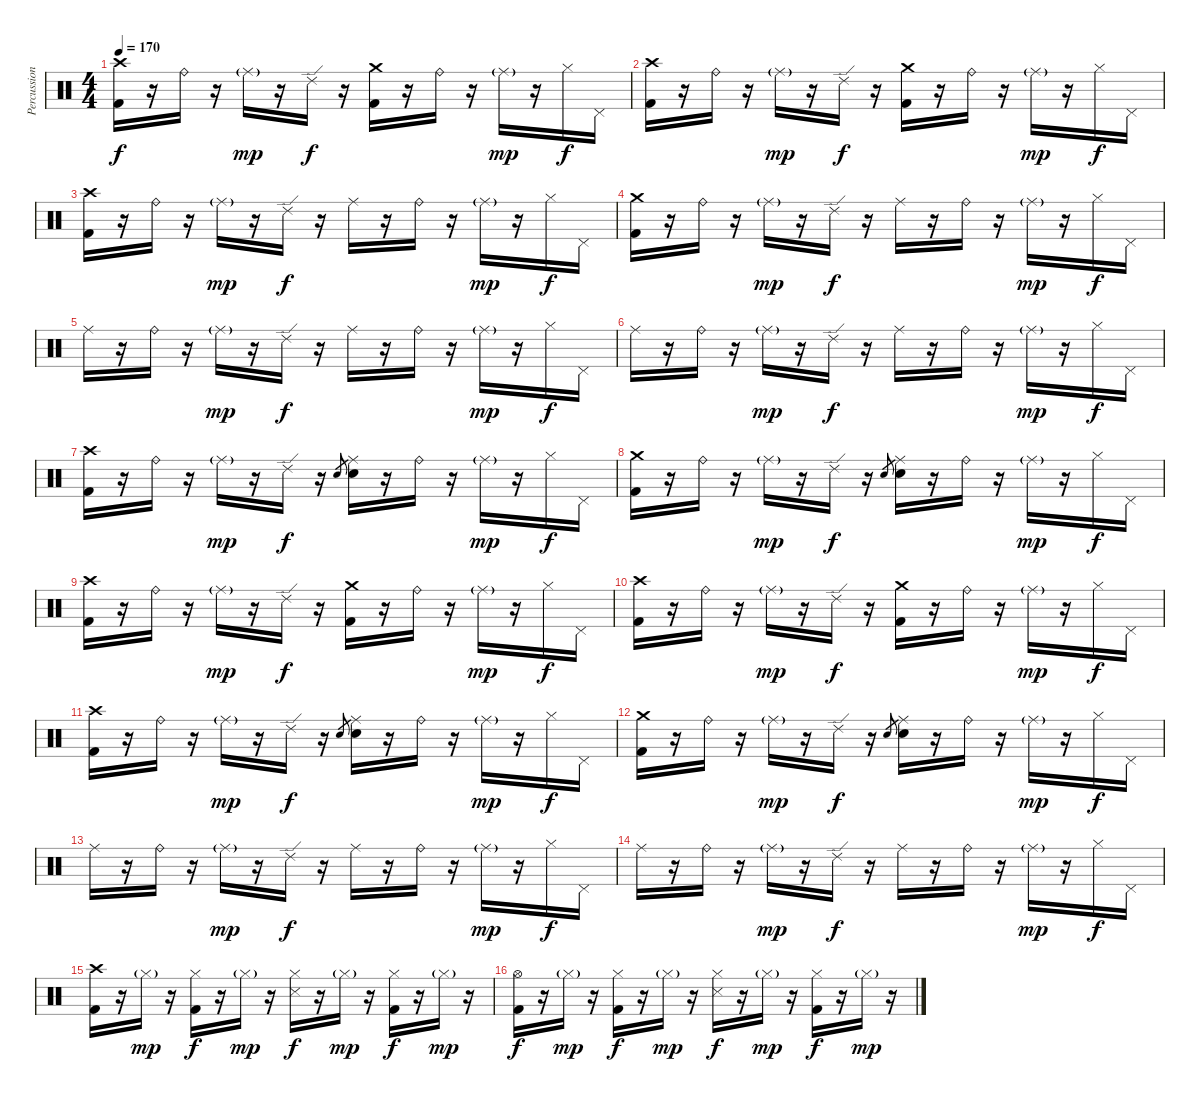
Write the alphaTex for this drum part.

\track ("Percussion" "Percussion") {instrument percussion}
\staff {score}
\articulation defaults
\ts (4 4)
\tempo 170
\clef neutral
\ks c
("Crash high (hit)" "Kick (hit) 2").16{dy f} r.16 "Ride (bell)".16 r.16 "Ride (middle)"{g}.16{dy mp} r.16 "Ride (edge) 2".16{dy f} r.16 ("Crash medium (hit)" "Kick (hit) 2").16 r.16 "Ride (bell)".16 r.16 "Ride (middle)"{g}.16{dy mp} r.16 "Hi-Hat (closed)".16{dy f} "Pedal Hi-Hat (hit)".16 |
("Crash high (hit)" "Kick (hit) 2").16 r.16 "Ride (bell)".16 r.16 "Ride (middle)"{g}.16{dy mp} r.16 "Ride (edge) 2".16{dy f} r.16 ("Crash medium (hit)" "Kick (hit) 2").16 r.16 "Ride (bell)".16 r.16 "Ride (middle)"{g}.16{dy mp} r.16 "Hi-Hat (closed)".16{dy f} "Pedal Hi-Hat (hit)".16 |
("Crash high (hit)" "Kick (hit) 2").16 r.16 "Ride (bell)".16 r.16 "Ride (middle)"{g}.16{dy mp} r.16 "Ride (edge) 2".16{dy f} r.16 "Ride (middle)".16 r.16 "Ride (bell)".16 r.16 "Ride (middle)"{g}.16{dy mp} r.16 "Hi-Hat (closed)".16{dy f} "Pedal Hi-Hat (hit)".16 |
("Crash medium (hit)" "Kick (hit) 2").16 r.16 "Ride (bell)".16 r.16 "Ride (middle)"{g}.16{dy mp} r.16 "Ride (edge) 2".16{dy f} r.16 "Ride (middle)".16 r.16 "Ride (bell)".16 r.16 "Ride (middle)"{g}.16{dy mp} r.16 "Hi-Hat (closed)".16{dy f} "Pedal Hi-Hat (hit)".16 |
"Ride (middle)".16 r.16 "Ride (bell)".16 r.16 "Ride (middle)"{g}.16{dy mp} r.16 "Ride (edge) 2".16{dy f} r.16 "Ride (middle)".16 r.16 "Ride (bell)".16 r.16 "Ride (middle)"{g}.16{dy mp} r.16 "Hi-Hat (closed)".16{dy f} "Pedal Hi-Hat (hit)".16 |
"Ride (middle)".16 r.16 "Ride (bell)".16 r.16 "Ride (middle)"{g}.16{dy mp} r.16 "Ride (edge) 2".16{dy f} r.16 "Ride (middle)".16 r.16 "Ride (bell)".16 r.16 "Ride (middle)"{g}.16{dy mp} r.16 "Hi-Hat (closed)".16{dy f} "Pedal Hi-Hat (hit)".16 |
("Crash high (hit)" "Kick (hit) 2").16 r.16 "Ride (bell)".16 r.16 "Ride (middle)"{g}.16{dy mp} r.16 "Ride (edge) 2".16{dy f} r.16 "Electric Snare (hit)".8{gr} ("Ride (middle)" "Electric Snare (hit)").16 r.16 "Ride (bell)".16 r.16 "Ride (middle)"{g}.16{dy mp} r.16 "Hi-Hat (closed)".16{dy f} "Pedal Hi-Hat (hit)".16 |
("Crash medium (hit)" "Kick (hit) 2").16 r.16 "Ride (bell)".16 r.16 "Ride (middle)"{g}.16{dy mp} r.16 "Ride (edge) 2".16{dy f} r.16 "Electric Snare (hit)".8{gr} ("Ride (middle)" "Electric Snare (hit)").16 r.16 "Ride (bell)".16 r.16 "Ride (middle)"{g}.16{dy mp} r.16 "Hi-Hat (closed)".16{dy f} "Pedal Hi-Hat (hit)".16 |
("Crash high (hit)" "Kick (hit) 2").16 r.16 "Ride (bell)".16 r.16 "Ride (middle)"{g}.16{dy mp} r.16 "Ride (edge) 2".16{dy f} r.16 ("Crash medium (hit)" "Kick (hit) 2").16 r.16 "Ride (bell)".16 r.16 "Ride (middle)"{g}.16{dy mp} r.16 "Hi-Hat (closed)".16{dy f} "Pedal Hi-Hat (hit)".16 |
("Crash high (hit)" "Kick (hit) 2").16 r.16 "Ride (bell)".16 r.16 "Ride (middle)"{g}.16{dy mp} r.16 "Ride (edge) 2".16{dy f} r.16 ("Crash medium (hit)" "Kick (hit) 2").16 r.16 "Ride (bell)".16 r.16 "Ride (middle)"{g}.16{dy mp} r.16 "Hi-Hat (closed)".16{dy f} "Pedal Hi-Hat (hit)".16 |
("Crash high (hit)" "Kick (hit) 2").16 r.16 "Ride (bell)".16 r.16 "Ride (middle)"{g}.16{dy mp} r.16 "Ride (edge) 2".16{dy f} r.16 "Electric Snare (hit)".8{gr} ("Ride (middle)" "Electric Snare (hit)").16 r.16 "Ride (bell)".16 r.16 "Ride (middle)"{g}.16{dy mp} r.16 "Hi-Hat (closed)".16{dy f} "Pedal Hi-Hat (hit)".16 |
("Crash medium (hit)" "Kick (hit) 2").16 r.16 "Ride (bell)".16 r.16 "Ride (middle)"{g}.16{dy mp} r.16 "Ride (edge) 2".16{dy f} r.16 "Electric Snare (hit)".8{gr} ("Ride (middle)" "Electric Snare (hit)").16 r.16 "Ride (bell)".16 r.16 "Ride (middle)"{g}.16{dy mp} r.16 "Hi-Hat (closed)".16{dy f} "Pedal Hi-Hat (hit)".16 |
"Ride (middle)".16 r.16 "Ride (bell)".16 r.16 "Ride (middle)"{g}.16{dy mp} r.16 "Ride (edge) 2".16{dy f} r.16 "Ride (middle)".16 r.16 "Ride (bell)".16 r.16 "Ride (middle)"{g}.16{dy mp} r.16 "Hi-Hat (closed)".16{dy f} "Pedal Hi-Hat (hit)".16 |
"Ride (middle)".16 r.16 "Ride (bell)".16 r.16 "Ride (middle)"{g}.16{dy mp} r.16 "Ride (edge) 2".16{dy f} r.16 "Ride (middle)".16 r.16 "Ride (bell)".16 r.16 "Ride (middle)"{g}.16{dy mp} r.16 "Hi-Hat (closed)".16{dy f} "Pedal Hi-Hat (hit)".16 |
("Crash high (hit)" "Kick (hit) 2").16 r.16 "Hi-Hat (closed)"{g}.16{dy mp} r.16 ("Hi-Hat (closed)" "Kick (hit) 2").16{dy f} r.16 "Hi-Hat (closed)"{g}.16{dy mp} r.16 ("Hi-Hat (closed)" "Snare (side stick) 3").16{dy f} r.16 "Hi-Hat (closed)"{g}.16{dy mp} r.16 ("Hi-Hat (closed)" "Kick (hit) 2").16{dy f} r.16 "Hi-Hat (closed)"{g}.16{dy mp} r.16 |
("Hi-Hat (open)" "Kick (hit) 2").16{dy f} r.16 "Hi-Hat (closed)"{g}.16{dy mp} r.16 ("Hi-Hat (closed)" "Kick (hit) 2").16{dy f} r.16 "Hi-Hat (closed)"{g}.16{dy mp} r.16 ("Hi-Hat (closed)" "Snare (side stick) 3").16{dy f} r.16 "Hi-Hat (closed)"{g}.16{dy mp} r.16 ("Hi-Hat (closed)" "Kick (hit) 2").16{dy f} r.16 "Hi-Hat (closed)"{g}.16{dy mp} r.16
